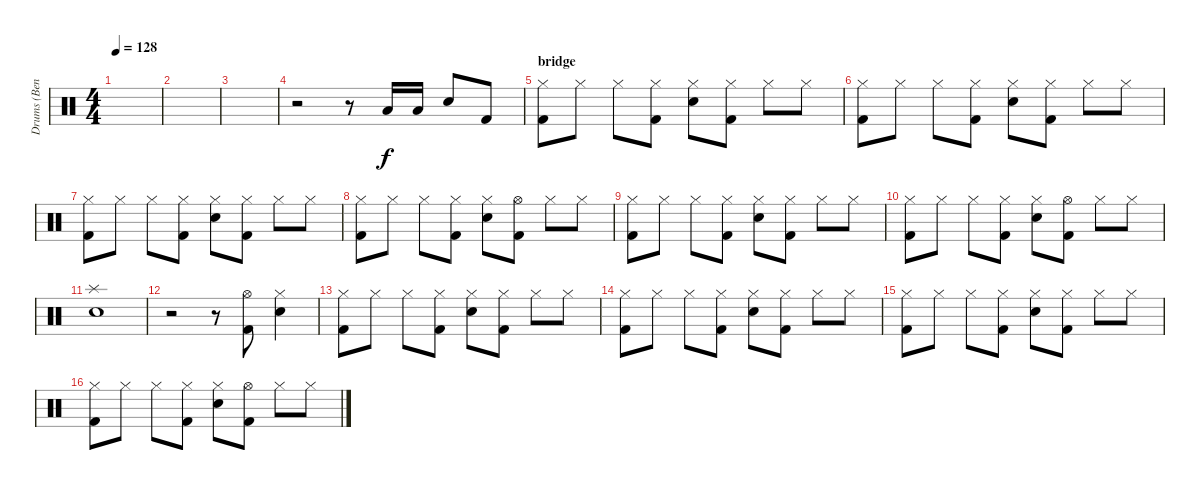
\track ("Drums (Bengerg)" "Drums (Ben") {instrument percussion}
\staff {score}
\articulation defaults
\ts (4 4)
\tempo 128
\clef neutral
\ks c
|
|
|
r.2 r.8 "Low Tom (hit)".16 "Low Tom (hit)".16 "Electric Snare (hit)".8 "Kick (hit) 2".8 |
\section ("" "bridge")
("Hi-Hat (closed)" "Kick (hit) 2").8 "Hi-Hat (closed)".8 "Hi-Hat (closed)".8 ("Hi-Hat (closed)" "Kick (hit) 2").8 ("Hi-Hat (closed)" "Electric Snare (hit)").8 ("Hi-Hat (closed)" "Kick (hit) 2").8 "Hi-Hat (closed)".8 "Hi-Hat (closed)".8 |
("Hi-Hat (closed)" "Kick (hit) 2").8 "Hi-Hat (closed)".8 "Hi-Hat (closed)".8 ("Hi-Hat (closed)" "Kick (hit) 2").8 ("Hi-Hat (closed)" "Electric Snare (hit)").8 ("Hi-Hat (closed)" "Kick (hit) 2").8 "Hi-Hat (closed)".8 "Hi-Hat (closed)".8 |
("Hi-Hat (closed)" "Kick (hit) 2").8 "Hi-Hat (closed)".8 "Hi-Hat (closed)".8 ("Hi-Hat (closed)" "Kick (hit) 2").8 ("Hi-Hat (closed)" "Electric Snare (hit)").8 ("Hi-Hat (closed)" "Kick (hit) 2").8 "Hi-Hat (closed)".8 "Hi-Hat (closed)".8 |
("Hi-Hat (closed)" "Kick (hit) 2").8 "Hi-Hat (closed)".8 "Hi-Hat (closed)".8 ("Hi-Hat (closed)" "Kick (hit) 2").8 ("Hi-Hat (closed)" "Electric Snare (hit)").8 ("Hi-Hat (open)" "Kick (hit) 2").8 "Hi-Hat (closed)".8 "Hi-Hat (closed)".8 |
("Hi-Hat (closed)" "Kick (hit) 2").8 "Hi-Hat (closed)".8 "Hi-Hat (closed)".8 ("Hi-Hat (closed)" "Kick (hit) 2").8 ("Hi-Hat (closed)" "Electric Snare (hit)").8 ("Hi-Hat (closed)" "Kick (hit) 2").8 "Hi-Hat (closed)".8 "Hi-Hat (closed)".8 |
("Hi-Hat (closed)" "Kick (hit) 2").8 "Hi-Hat (closed)".8 "Hi-Hat (closed)".8 ("Hi-Hat (closed)" "Kick (hit) 2").8 ("Hi-Hat (closed)" "Electric Snare (hit)").8 ("Hi-Hat (open)" "Kick (hit) 2").8 "Hi-Hat (closed)".8 "Hi-Hat (closed)".8 |
("Splash (hit)" "Electric Snare (hit)").1 |
r.2 r.8 ("Hi-Hat (open)" "Kick (hit) 2").8 ("Hi-Hat (closed)" "Electric Snare (hit)").4 |
("Hi-Hat (closed)" "Kick (hit) 2").8 "Hi-Hat (closed)".8 "Hi-Hat (closed)".8 ("Hi-Hat (closed)" "Kick (hit) 2").8 ("Hi-Hat (closed)" "Electric Snare (hit)").8 ("Hi-Hat (closed)" "Kick (hit) 2").8 "Hi-Hat (closed)".8 "Hi-Hat (closed)".8 |
("Hi-Hat (closed)" "Kick (hit) 2").8 "Hi-Hat (closed)".8 "Hi-Hat (closed)".8 ("Hi-Hat (closed)" "Kick (hit) 2").8 ("Hi-Hat (closed)" "Electric Snare (hit)").8 ("Hi-Hat (closed)" "Kick (hit) 2").8 "Hi-Hat (closed)".8 "Hi-Hat (closed)".8 |
("Hi-Hat (closed)" "Kick (hit) 2").8 "Hi-Hat (closed)".8 "Hi-Hat (closed)".8 ("Hi-Hat (closed)" "Kick (hit) 2").8 ("Hi-Hat (closed)" "Electric Snare (hit)").8 ("Hi-Hat (closed)" "Kick (hit) 2").8 "Hi-Hat (closed)".8 "Hi-Hat (closed)".8 |
("Hi-Hat (closed)" "Kick (hit) 2").8 "Hi-Hat (closed)".8 "Hi-Hat (closed)".8 ("Hi-Hat (closed)" "Kick (hit) 2").8 ("Hi-Hat (closed)" "Electric Snare (hit)").8 ("Hi-Hat (open)" "Kick (hit) 2").8 "Hi-Hat (closed)".8 "Hi-Hat (closed)".8
